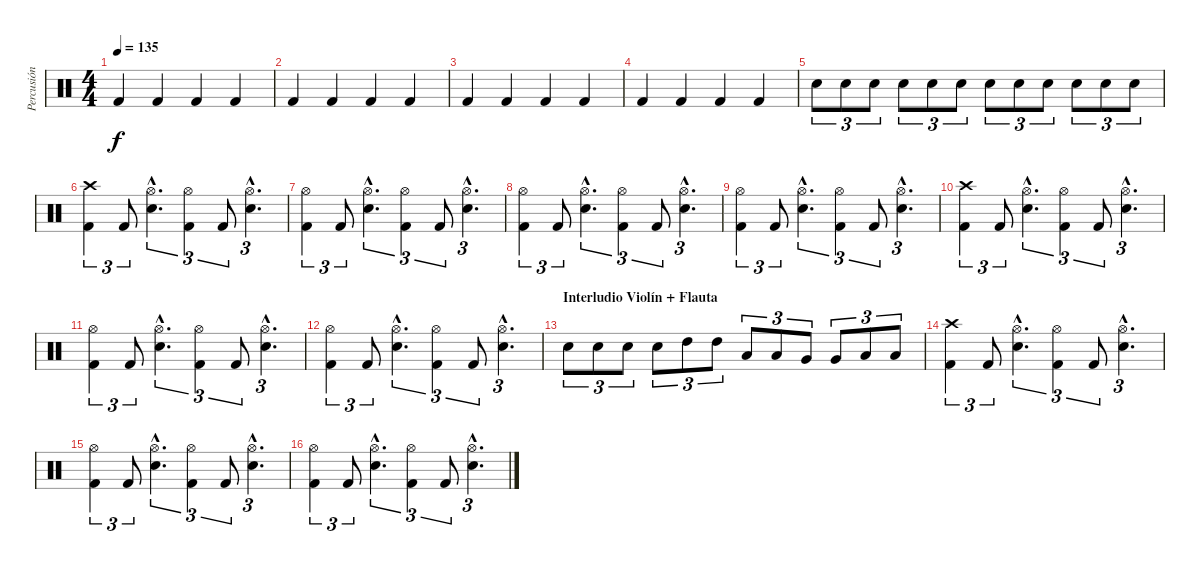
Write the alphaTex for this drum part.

\track ("Percusión" "Percusión") {instrument percussion}
\staff {score}
\articulation defaults
\ts (4 4)
\tempo 135
\clef neutral
\ks c "Kick (hit) 2".4{dy f} "Kick (hit) 2".4 "Kick (hit) 2".4 "Kick (hit) 2".4
|
"Kick (hit) 2".4 "Kick (hit) 2".4 "Kick (hit) 2".4 "Kick (hit) 2".4 |
"Kick (hit) 2".4 "Kick (hit) 2".4 "Kick (hit) 2".4 "Kick (hit) 2".4 |
"Kick (hit) 2".4 "Kick (hit) 2".4 "Kick (hit) 2".4 "Kick (hit) 2".4 |
"Snare (hit) 2".8{tu (3 2)} "Snare (hit) 2".8{tu (3 2)} "Snare (hit) 2".8{tu (3 2)} "Snare (hit) 2".8{tu (3 2)} "Snare (hit) 2".8{tu (3 2)} "Snare (hit) 2".8{tu (3 2)} "Snare (hit) 2".8{tu (3 2)} "Snare (hit) 2".8{tu (3 2)} "Snare (hit) 2".8{tu (3 2)} "Snare (hit) 2".8{tu (3 2)} "Snare (hit) 2".8{tu (3 2)} "Snare (hit) 2".8{tu (3 2)} |
("Crash high (hit)" "Kick (hit) 2").4{tu (3 2)} "Kick (hit) 2".8{tu (3 2)} ("Hi-Hat (open)"{hac} "Snare (hit) 2"{hac}).4{d tu (3 2)} ("Hi-Hat (open)" "Kick (hit) 2").4{tu (3 2)} "Kick (hit) 2".8{tu (3 2)} ("Hi-Hat (open)"{hac} "Snare (hit) 2"{hac}).4{d tu (3 2)} |
("Hi-Hat (open)" "Kick (hit) 2").4{tu (3 2)} "Kick (hit) 2".8{tu (3 2)} ("Hi-Hat (open)"{hac} "Snare (hit) 2"{hac}).4{d tu (3 2)} ("Hi-Hat (open)" "Kick (hit) 2").4{tu (3 2)} "Kick (hit) 2".8{tu (3 2)} ("Hi-Hat (open)"{hac} "Snare (hit) 2"{hac}).4{d tu (3 2)} |
("Hi-Hat (open)" "Kick (hit) 2").4{tu (3 2)} "Kick (hit) 2".8{tu (3 2)} ("Hi-Hat (open)"{hac} "Snare (hit) 2"{hac}).4{d tu (3 2)} ("Hi-Hat (open)" "Kick (hit) 2").4{tu (3 2)} "Kick (hit) 2".8{tu (3 2)} ("Hi-Hat (open)"{hac} "Snare (hit) 2"{hac}).4{d tu (3 2)} |
("Hi-Hat (open)" "Kick (hit) 2").4{tu (3 2)} "Kick (hit) 2".8{tu (3 2)} ("Hi-Hat (open)"{hac} "Snare (hit) 2"{hac}).4{d tu (3 2)} ("Hi-Hat (open)" "Kick (hit) 2").4{tu (3 2)} "Kick (hit) 2".8{tu (3 2)} ("Hi-Hat (open)"{hac} "Snare (hit) 2"{hac}).4{d tu (3 2)} |
("Crash high (hit)" "Kick (hit) 2").4{tu (3 2)} "Kick (hit) 2".8{tu (3 2)} ("Hi-Hat (open)"{hac} "Snare (hit) 2"{hac}).4{d tu (3 2)} ("Hi-Hat (open)" "Kick (hit) 2").4{tu (3 2)} "Kick (hit) 2".8{tu (3 2)} ("Hi-Hat (open)"{hac} "Snare (hit) 2"{hac}).4{d tu (3 2)} |
("Hi-Hat (open)" "Kick (hit) 2").4{tu (3 2)} "Kick (hit) 2".8{tu (3 2)} ("Hi-Hat (open)"{hac} "Snare (hit) 2"{hac}).4{d tu (3 2)} ("Hi-Hat (open)" "Kick (hit) 2").4{tu (3 2)} "Kick (hit) 2".8{tu (3 2)} ("Hi-Hat (open)"{hac} "Snare (hit) 2"{hac}).4{d tu (3 2)} |
("Hi-Hat (open)" "Kick (hit) 2").4{tu (3 2)} "Kick (hit) 2".8{tu (3 2)} ("Hi-Hat (open)"{hac} "Snare (hit) 2"{hac}).4{d tu (3 2)} ("Hi-Hat (open)" "Kick (hit) 2").4{tu (3 2)} "Kick (hit) 2".8{tu (3 2)} ("Hi-Hat (open)"{hac} "Snare (hit) 2"{hac}).4{d tu (3 2)} |
\section ("" "Interludio Violín + Flauta")
"Snare (hit) 2".8{tu (3 2)} "Snare (hit) 2".8{tu (3 2)} "Snare (hit) 2".8{tu (3 2)} "Snare (hit) 2".8{tu (3 2)} "High Tom (hit)".8{tu (3 2)} "High Tom (hit)".8{tu (3 2)} "Low Tom (hit)".8{tu (3 2)} "Low Tom (hit)".8{tu (3 2)} "Very Low Tom (hit)".8{tu (3 2)} "Very Low Tom (hit)".8{tu (3 2)} "Low Floor Tom (hit)".8{tu (3 2)} "Low Floor Tom (hit)".8{tu (3 2)} |
("Crash high (hit)" "Kick (hit) 2").4{tu (3 2)} "Kick (hit) 2".8{tu (3 2)} ("Hi-Hat (open)"{hac} "Snare (hit) 2"{hac}).4{d tu (3 2)} ("Hi-Hat (open)" "Kick (hit) 2").4{tu (3 2)} "Kick (hit) 2".8{tu (3 2)} ("Hi-Hat (open)"{hac} "Snare (hit) 2"{hac}).4{d tu (3 2)} |
("Hi-Hat (open)" "Kick (hit) 2").4{tu (3 2)} "Kick (hit) 2".8{tu (3 2)} ("Hi-Hat (open)"{hac} "Snare (hit) 2"{hac}).4{d tu (3 2)} ("Hi-Hat (open)" "Kick (hit) 2").4{tu (3 2)} "Kick (hit) 2".8{tu (3 2)} ("Hi-Hat (open)"{hac} "Snare (hit) 2"{hac}).4{d tu (3 2)} |
("Hi-Hat (open)" "Kick (hit) 2").4{tu (3 2)} "Kick (hit) 2".8{tu (3 2)} ("Hi-Hat (open)"{hac} "Snare (hit) 2"{hac}).4{d tu (3 2)} ("Hi-Hat (open)" "Kick (hit) 2").4{tu (3 2)} "Kick (hit) 2".8{tu (3 2)} ("Hi-Hat (open)"{hac} "Snare (hit) 2"{hac}).4{d tu (3 2)}
